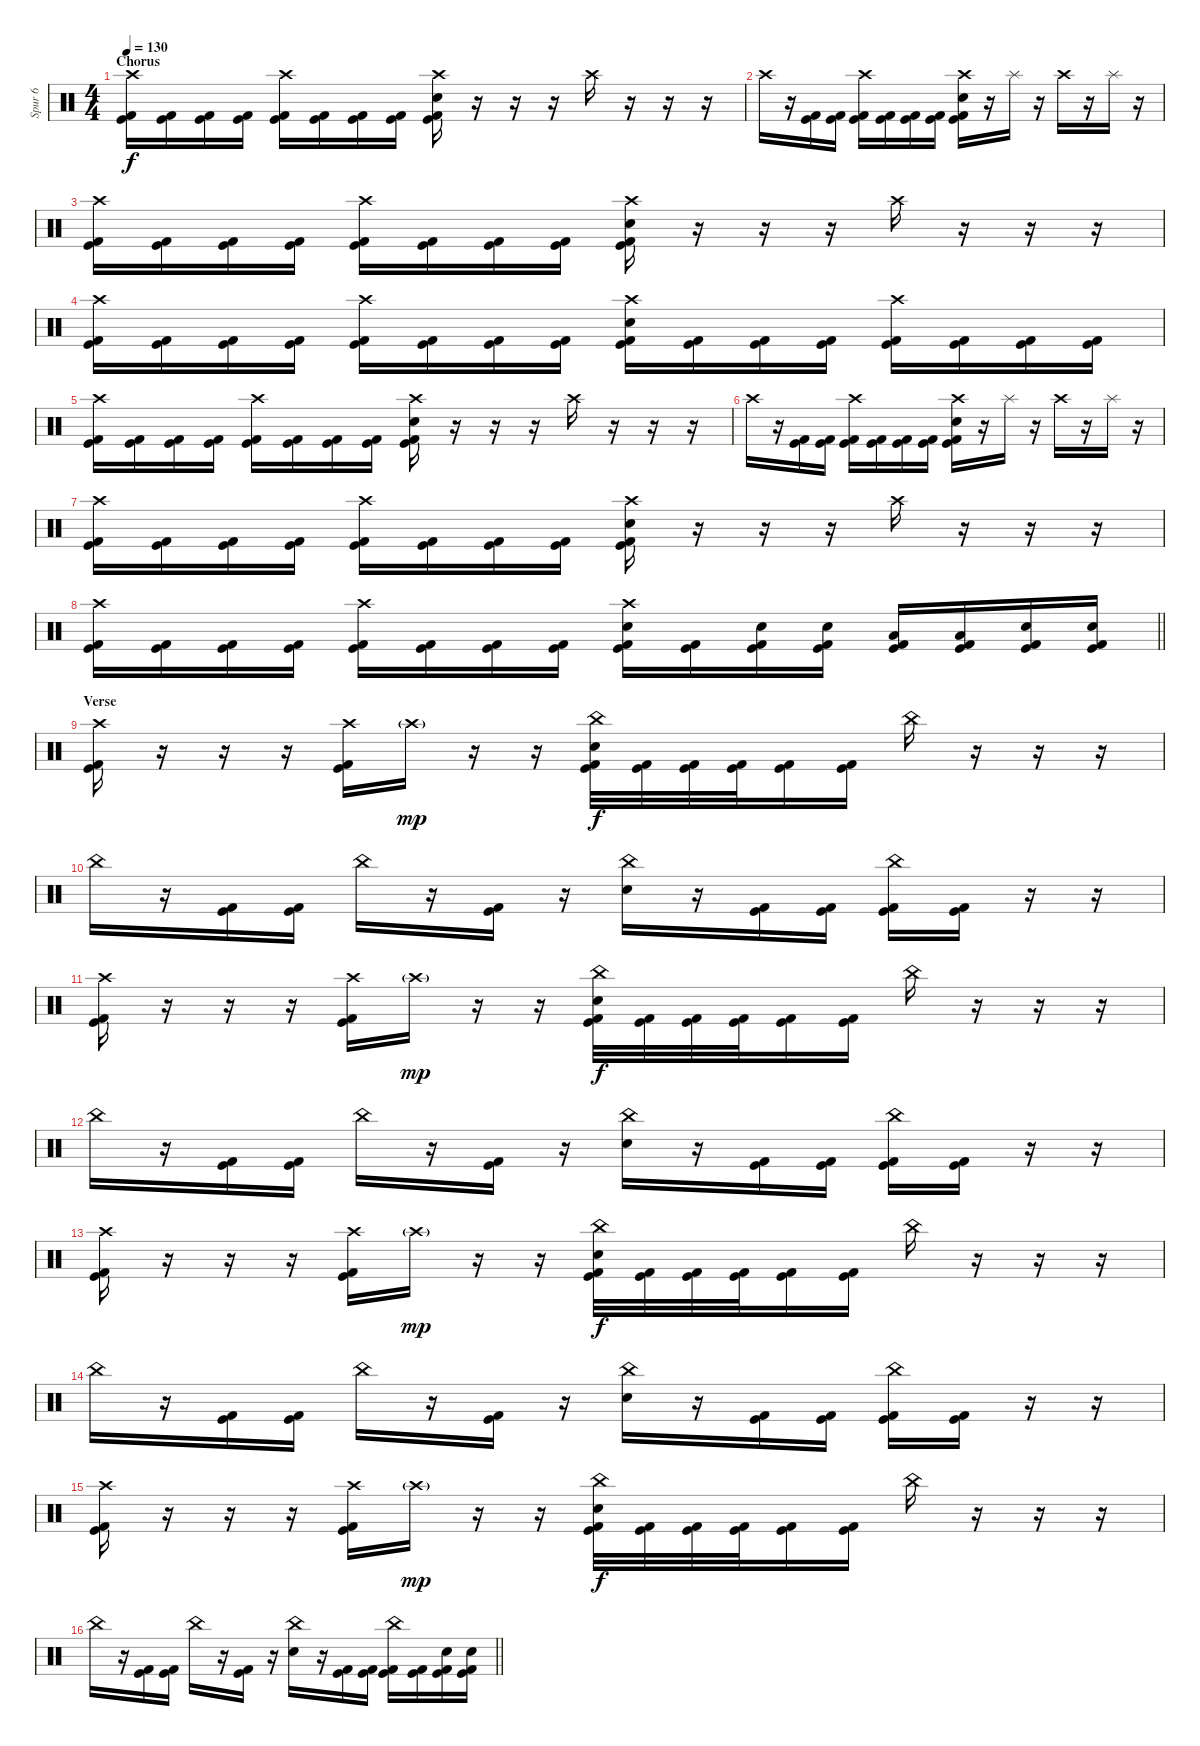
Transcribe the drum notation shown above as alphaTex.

\track ("Spur 6" "Spur 6") {instrument percussion}
\staff {score}
\articulation defaults
\ts (4 4)
\section ("" "Chorus")
\tempo 130
\clef neutral
\ks c
("Crash high (hit)" "Kick (hit)" "Kick (hit) 2").16{dy f} ("Kick (hit)" "Kick (hit) 2").16 ("Kick (hit)" "Kick (hit) 2").16 ("Kick (hit)" "Kick (hit) 2").16 ("Crash high (hit)" "Kick (hit)" "Kick (hit) 2").16 ("Kick (hit)" "Kick (hit) 2").16 ("Kick (hit)" "Kick (hit) 2").16 ("Kick (hit)" "Kick (hit) 2").16 ("Crash high (hit)" "Electric Snare (hit)" "Kick (hit)" "Kick (hit) 2").16 r.16 r.16 r.16 "Crash high (hit)".16 r.16 r.16 r.16 |
"Crash high (hit)".16 r.16 ("Kick (hit)" "Kick (hit) 2").16 ("Kick (hit)" "Kick (hit) 2").16 ("Crash high (hit)" "Kick (hit)" "Kick (hit) 2").16 ("Kick (hit)" "Kick (hit) 2").16 ("Kick (hit)" "Kick (hit) 2").16 ("Kick (hit)" "Kick (hit) 2").16 ("Crash high (hit)" "Electric Snare (hit)" "Kick (hit)" "Kick (hit) 2").16 r.16 "Splash (hit)".16 r.16 "Crash high (hit)".16 r.16 "Splash (hit)".16 r.16 |
("Crash high (hit)" "Kick (hit)" "Kick (hit) 2").16 ("Kick (hit)" "Kick (hit) 2").16 ("Kick (hit)" "Kick (hit) 2").16 ("Kick (hit)" "Kick (hit) 2").16 ("Crash high (hit)" "Kick (hit)" "Kick (hit) 2").16 ("Kick (hit)" "Kick (hit) 2").16 ("Kick (hit)" "Kick (hit) 2").16 ("Kick (hit)" "Kick (hit) 2").16 ("Crash high (hit)" "Electric Snare (hit)" "Kick (hit)" "Kick (hit) 2").16 r.16 r.16 r.16 "Crash high (hit)".16 r.16 r.16 r.16 |
("Crash high (hit)" "Kick (hit)" "Kick (hit) 2").16 ("Kick (hit)" "Kick (hit) 2").16 ("Kick (hit)" "Kick (hit) 2").16 ("Kick (hit)" "Kick (hit) 2").16 ("Crash high (hit)" "Kick (hit)" "Kick (hit) 2").16 ("Kick (hit)" "Kick (hit) 2").16 ("Kick (hit)" "Kick (hit) 2").16 ("Kick (hit)" "Kick (hit) 2").16 ("Crash high (hit)" "Electric Snare (hit)" "Kick (hit)" "Kick (hit) 2").16 ("Kick (hit)" "Kick (hit) 2").16 ("Kick (hit)" "Kick (hit) 2").16 ("Kick (hit)" "Kick (hit) 2").16 ("Crash high (hit)" "Kick (hit)" "Kick (hit) 2").16 ("Kick (hit)" "Kick (hit) 2").16 ("Kick (hit)" "Kick (hit) 2").16 ("Kick (hit)" "Kick (hit) 2").16 |
("Crash high (hit)" "Kick (hit)" "Kick (hit) 2").16 ("Kick (hit)" "Kick (hit) 2").16 ("Kick (hit)" "Kick (hit) 2").16 ("Kick (hit)" "Kick (hit) 2").16 ("Crash high (hit)" "Kick (hit)" "Kick (hit) 2").16 ("Kick (hit)" "Kick (hit) 2").16 ("Kick (hit)" "Kick (hit) 2").16 ("Kick (hit)" "Kick (hit) 2").16 ("Crash high (hit)" "Electric Snare (hit)" "Kick (hit)" "Kick (hit) 2").16 r.16 r.16 r.16 "Crash high (hit)".16 r.16 r.16 r.16 |
"Crash high (hit)".16 r.16 ("Kick (hit)" "Kick (hit) 2").16 ("Kick (hit)" "Kick (hit) 2").16 ("Crash high (hit)" "Kick (hit)" "Kick (hit) 2").16 ("Kick (hit)" "Kick (hit) 2").16 ("Kick (hit)" "Kick (hit) 2").16 ("Kick (hit)" "Kick (hit) 2").16 ("Crash high (hit)" "Electric Snare (hit)" "Kick (hit)" "Kick (hit) 2").16 r.16 "Splash (hit)".16 r.16 "Crash high (hit)".16 r.16 "Splash (hit)".16 r.16 |
("Crash high (hit)" "Kick (hit)" "Kick (hit) 2").16 ("Kick (hit)" "Kick (hit) 2").16 ("Kick (hit)" "Kick (hit) 2").16 ("Kick (hit)" "Kick (hit) 2").16 ("Crash high (hit)" "Kick (hit)" "Kick (hit) 2").16 ("Kick (hit)" "Kick (hit) 2").16 ("Kick (hit)" "Kick (hit) 2").16 ("Kick (hit)" "Kick (hit) 2").16 ("Crash high (hit)" "Electric Snare (hit)" "Kick (hit)" "Kick (hit) 2").16 r.16 r.16 r.16 "Crash high (hit)".16 r.16 r.16 r.16 |
\barLineRight lightlight
("Crash high (hit)" "Kick (hit)" "Kick (hit) 2").16 ("Kick (hit)" "Kick (hit) 2").16 ("Kick (hit)" "Kick (hit) 2").16 ("Kick (hit)" "Kick (hit) 2").16 ("Crash high (hit)" "Kick (hit)" "Kick (hit) 2").16 ("Kick (hit)" "Kick (hit) 2").16 ("Kick (hit)" "Kick (hit) 2").16 ("Kick (hit)" "Kick (hit) 2").16 ("Crash high (hit)" "Electric Snare (hit)" "Kick (hit)" "Kick (hit) 2").16 ("Kick (hit)" "Kick (hit) 2").16 ("Electric Snare (hit)" "Kick (hit)" "Kick (hit) 2").16 ("Electric Snare (hit)" "Kick (hit)" "Kick (hit) 2").16 ("Low Tom (hit)" "Kick (hit)" "Kick (hit) 2").16 ("Low Tom (hit)" "Kick (hit)" "Kick (hit) 2").16 ("Electric Snare (hit)" "Kick (hit)" "Kick (hit) 2").16 ("Electric Snare (hit)" "Kick (hit)" "Kick (hit) 2").16 |
\section ("" "Verse")
("Crash high (hit)" "Kick (hit)" "Kick (hit) 2").16 r.16 r.16 r.16 ("Crash high (hit)" "Kick (hit)" "Kick (hit) 2").16 "Crash high (hit)"{g}.16{dy mp} r.16 r.16 ("China (hit)" "Electric Snare (hit)" "Kick (hit)" "Kick (hit) 2").32{dy f} ("Kick (hit)" "Kick (hit) 2").32 ("Kick (hit)" "Kick (hit) 2").32 ("Kick (hit)" "Kick (hit) 2").32 ("Kick (hit)" "Kick (hit) 2").16 ("Kick (hit)" "Kick (hit) 2").16 "China (hit)".16 r.16 r.16 r.16 |
"China (hit)".16 r.16 ("Kick (hit)" "Kick (hit) 2").16 ("Kick (hit)" "Kick (hit) 2").16 "China (hit)".16 r.16 ("Kick (hit)" "Kick (hit) 2").16 r.16 ("China (hit)" "Electric Snare (hit)").16 r.16 ("Kick (hit)" "Kick (hit) 2").16 ("Kick (hit)" "Kick (hit) 2").16 ("China (hit)" "Kick (hit)" "Kick (hit) 2").16 ("Kick (hit)" "Kick (hit) 2").16 r.16 r.16 |
("Crash high (hit)" "Kick (hit)" "Kick (hit) 2").16 r.16 r.16 r.16 ("Crash high (hit)" "Kick (hit)" "Kick (hit) 2").16 "Crash high (hit)"{g}.16{dy mp} r.16 r.16 ("China (hit)" "Electric Snare (hit)" "Kick (hit)" "Kick (hit) 2").32{dy f} ("Kick (hit)" "Kick (hit) 2").32 ("Kick (hit)" "Kick (hit) 2").32 ("Kick (hit)" "Kick (hit) 2").32 ("Kick (hit)" "Kick (hit) 2").16 ("Kick (hit)" "Kick (hit) 2").16 "China (hit)".16 r.16 r.16 r.16 |
"China (hit)".16 r.16 ("Kick (hit)" "Kick (hit) 2").16 ("Kick (hit)" "Kick (hit) 2").16 "China (hit)".16 r.16 ("Kick (hit)" "Kick (hit) 2").16 r.16 ("China (hit)" "Electric Snare (hit)").16 r.16 ("Kick (hit)" "Kick (hit) 2").16 ("Kick (hit)" "Kick (hit) 2").16 ("China (hit)" "Kick (hit)" "Kick (hit) 2").16 ("Kick (hit)" "Kick (hit) 2").16 r.16 r.16 |
("Crash high (hit)" "Kick (hit)" "Kick (hit) 2").16 r.16 r.16 r.16 ("Crash high (hit)" "Kick (hit)" "Kick (hit) 2").16 "Crash high (hit)"{g}.16{dy mp} r.16 r.16 ("China (hit)" "Electric Snare (hit)" "Kick (hit)" "Kick (hit) 2").32{dy f} ("Kick (hit)" "Kick (hit) 2").32 ("Kick (hit)" "Kick (hit) 2").32 ("Kick (hit)" "Kick (hit) 2").32 ("Kick (hit)" "Kick (hit) 2").16 ("Kick (hit)" "Kick (hit) 2").16 "China (hit)".16 r.16 r.16 r.16 |
"China (hit)".16 r.16 ("Kick (hit)" "Kick (hit) 2").16 ("Kick (hit)" "Kick (hit) 2").16 "China (hit)".16 r.16 ("Kick (hit)" "Kick (hit) 2").16 r.16 ("China (hit)" "Electric Snare (hit)").16 r.16 ("Kick (hit)" "Kick (hit) 2").16 ("Kick (hit)" "Kick (hit) 2").16 ("China (hit)" "Kick (hit)" "Kick (hit) 2").16 ("Kick (hit)" "Kick (hit) 2").16 r.16 r.16 |
("Crash high (hit)" "Kick (hit)" "Kick (hit) 2").16 r.16 r.16 r.16 ("Crash high (hit)" "Kick (hit)" "Kick (hit) 2").16 "Crash high (hit)"{g}.16{dy mp} r.16 r.16 ("China (hit)" "Electric Snare (hit)" "Kick (hit)" "Kick (hit) 2").32{dy f} ("Kick (hit)" "Kick (hit) 2").32 ("Kick (hit)" "Kick (hit) 2").32 ("Kick (hit)" "Kick (hit) 2").32 ("Kick (hit)" "Kick (hit) 2").16 ("Kick (hit)" "Kick (hit) 2").16 "China (hit)".16 r.16 r.16 r.16 |
\barLineRight lightlight "China (hit)".16
r.16 ("Kick (hit)" "Kick (hit) 2").16 ("Kick (hit)" "Kick (hit) 2").16 "China (hit)".16 r.16 ("Kick (hit)" "Kick (hit) 2").16 r.16 ("China (hit)" "Electric Snare (hit)").16 r.16 ("Kick (hit)" "Kick (hit) 2").16 ("Kick (hit)" "Kick (hit) 2").16 ("China (hit)" "Kick (hit)" "Kick (hit) 2").16 ("Kick (hit)" "Kick (hit) 2").16 ("Electric Snare (hit)" "Kick (hit)" "Kick (hit) 2").16 ("Electric Snare (hit)" "Kick (hit)" "Kick (hit) 2").16
